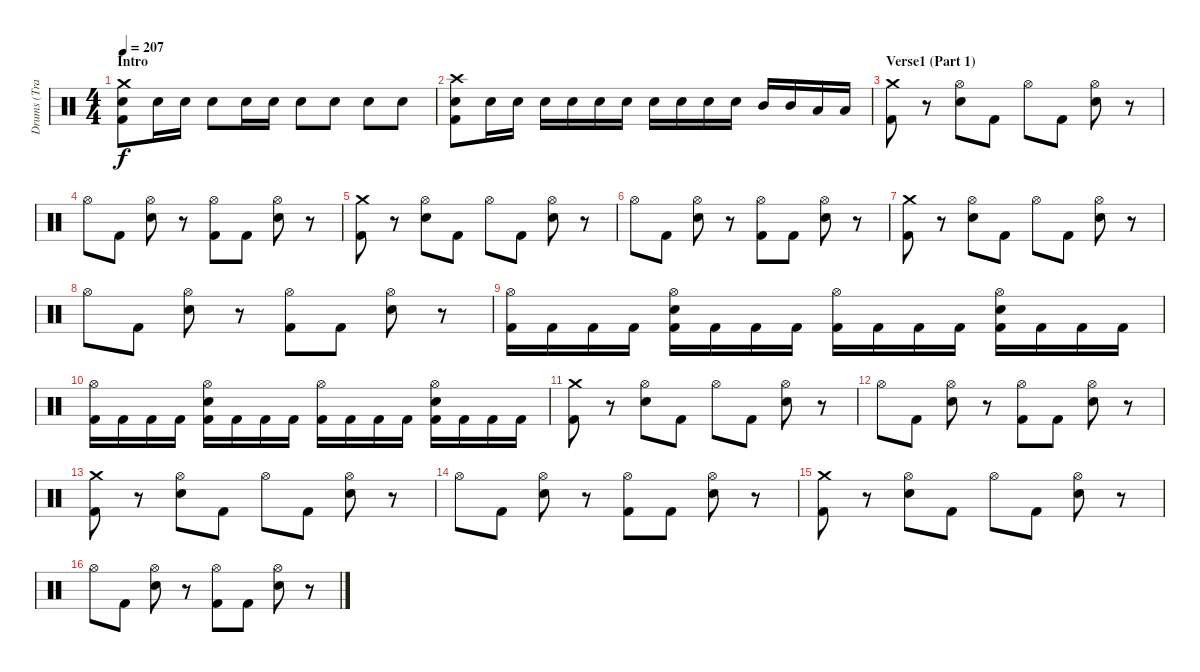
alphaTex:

\track ("Drums (Travis)" "Drums (Tra") {instrument percussion}
\staff {score}
\articulation defaults
\ts (4 4)
\section ("" "Intro")
\tempo 207
\clef neutral
\ks c
("Crash medium (hit)" "Snare (hit) 2" "Kick (hit) 2").8{dy f} "Snare (hit) 2".16 "Snare (hit) 2".16 "Snare (hit) 2".8 "Snare (hit) 2".16 "Snare (hit) 2".16 "Snare (hit) 2".8 "Snare (hit) 2".8 "Snare (hit) 2".8 "Snare (hit) 2".8 |
("Crash high (hit)" "Snare (hit) 2" "Kick (hit) 2").8 "Snare (hit) 2".16 "Snare (hit) 2".16 "Snare (hit) 2".16 "Snare (hit) 2".16 "Snare (hit) 2".16 "Snare (hit) 2".16 "Snare (hit) 2".16 "Snare (hit) 2".16 "Snare (hit) 2".16 "Snare (hit) 2".16 "Mid Tom (hit)".16 "Mid Tom (hit)".16 "Low Tom (hit)".16 "Low Tom (hit)".16 |
\section ("" "Verse1 (Part 1)")
("Crash medium (hit)" "Kick (hit) 2").8 r.8 ("Hi-Hat (open)" "Snare (hit) 2").8 "Kick (hit) 2".8 "Hi-Hat (open)".8 "Kick (hit) 2".8 ("Hi-Hat (open)" "Snare (hit) 2").8 r.8 |
"Hi-Hat (open)".8 "Kick (hit) 2".8 ("Hi-Hat (open)" "Snare (hit) 2").8 r.8 ("Hi-Hat (open)" "Kick (hit) 2").8 "Kick (hit) 2".8 ("Hi-Hat (open)" "Snare (hit) 2").8 r.8 |
("Crash medium (hit)" "Kick (hit) 2").8 r.8 ("Hi-Hat (open)" "Snare (hit) 2").8 "Kick (hit) 2".8 "Hi-Hat (open)".8 "Kick (hit) 2".8 ("Hi-Hat (open)" "Snare (hit) 2").8 r.8 |
"Hi-Hat (open)".8 "Kick (hit) 2".8 ("Hi-Hat (open)" "Snare (hit) 2").8 r.8 ("Hi-Hat (open)" "Kick (hit) 2").8 "Kick (hit) 2".8 ("Hi-Hat (open)" "Snare (hit) 2").8 r.8 |
("Crash medium (hit)" "Kick (hit) 2").8 r.8 ("Hi-Hat (open)" "Snare (hit) 2").8 "Kick (hit) 2".8 "Hi-Hat (open)".8 "Kick (hit) 2".8 ("Hi-Hat (open)" "Snare (hit) 2").8 r.8 |
"Hi-Hat (open)".8 "Kick (hit) 2".8 ("Hi-Hat (open)" "Snare (hit) 2").8 r.8 ("Hi-Hat (open)" "Kick (hit) 2").8 "Kick (hit) 2".8 ("Hi-Hat (open)" "Snare (hit) 2").8 r.8 |
("Hi-Hat (open)" "Kick (hit) 2").16 "Kick (hit) 2".16 "Kick (hit) 2".16 "Kick (hit) 2".16 ("Hi-Hat (open)" "Snare (hit) 2" "Kick (hit) 2").16 "Kick (hit) 2".16 "Kick (hit) 2".16 "Kick (hit) 2".16 ("Hi-Hat (open)" "Kick (hit) 2").16 "Kick (hit) 2".16 "Kick (hit) 2".16 "Kick (hit) 2".16 ("Hi-Hat (open)" "Snare (hit) 2" "Kick (hit) 2").16 "Kick (hit) 2".16 "Kick (hit) 2".16 "Kick (hit) 2".16 |
("Hi-Hat (open)" "Kick (hit) 2").16 "Kick (hit) 2".16 "Kick (hit) 2".16 "Kick (hit) 2".16 ("Hi-Hat (open)" "Snare (hit) 2" "Kick (hit) 2").16 "Kick (hit) 2".16 "Kick (hit) 2".16 "Kick (hit) 2".16 ("Hi-Hat (open)" "Kick (hit) 2").16 "Kick (hit) 2".16 "Kick (hit) 2".16 "Kick (hit) 2".16 ("Hi-Hat (open)" "Snare (hit) 2" "Kick (hit) 2").16 "Kick (hit) 2".16 "Kick (hit) 2".16 "Kick (hit) 2".16 |
("Crash medium (hit)" "Kick (hit) 2").8 r.8 ("Hi-Hat (open)" "Snare (hit) 2").8 "Kick (hit) 2".8 "Hi-Hat (open)".8 "Kick (hit) 2".8 ("Hi-Hat (open)" "Snare (hit) 2").8 r.8 |
"Hi-Hat (open)".8 "Kick (hit) 2".8 ("Hi-Hat (open)" "Snare (hit) 2").8 r.8 ("Hi-Hat (open)" "Kick (hit) 2").8 "Kick (hit) 2".8 ("Hi-Hat (open)" "Snare (hit) 2").8 r.8 |
("Crash medium (hit)" "Kick (hit) 2").8 r.8 ("Hi-Hat (open)" "Snare (hit) 2").8 "Kick (hit) 2".8 "Hi-Hat (open)".8 "Kick (hit) 2".8 ("Hi-Hat (open)" "Snare (hit) 2").8 r.8 |
"Hi-Hat (open)".8 "Kick (hit) 2".8 ("Hi-Hat (open)" "Snare (hit) 2").8 r.8 ("Hi-Hat (open)" "Kick (hit) 2").8 "Kick (hit) 2".8 ("Hi-Hat (open)" "Snare (hit) 2").8 r.8 |
("Crash medium (hit)" "Kick (hit) 2").8 r.8 ("Hi-Hat (open)" "Snare (hit) 2").8 "Kick (hit) 2".8 "Hi-Hat (open)".8 "Kick (hit) 2".8 ("Hi-Hat (open)" "Snare (hit) 2").8 r.8 |
"Hi-Hat (open)".8 "Kick (hit) 2".8 ("Hi-Hat (open)" "Snare (hit) 2").8 r.8 ("Hi-Hat (open)" "Kick (hit) 2").8 "Kick (hit) 2".8 ("Hi-Hat (open)" "Snare (hit) 2").8 r.8
